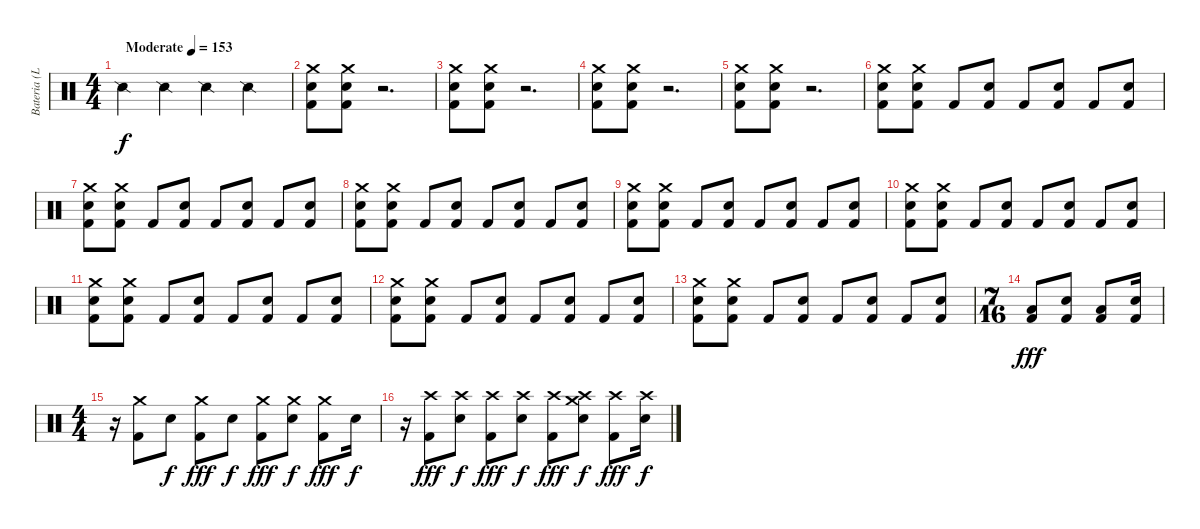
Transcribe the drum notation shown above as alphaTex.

\track ("Bateria (Lars)" "Bateria (L") {instrument percussion}
\staff {score}
\articulation defaults
\ts (4 4)
\tempo (153 "Moderate")
\clef neutral
\ks c "Snare (side stick) 2".4{dy f} "Snare (side stick) 2".4 "Snare (side stick) 2".4 "Snare (side stick) 2".4
|
("Crash medium (hit)" "Electric Snare (hit)" "Kick (hit) 2").8 ("Crash medium (hit)" "Electric Snare (hit)" "Kick (hit) 2").8 r.2{d} |
("Crash medium (hit)" "Electric Snare (hit)" "Kick (hit) 2").8 ("Crash medium (hit)" "Electric Snare (hit)" "Kick (hit) 2").8 r.2{d} |
("Crash medium (hit)" "Electric Snare (hit)" "Kick (hit) 2").8 ("Crash medium (hit)" "Electric Snare (hit)" "Kick (hit) 2").8 r.2{d} |
("Crash medium (hit)" "Electric Snare (hit)" "Kick (hit) 2").8 ("Crash medium (hit)" "Electric Snare (hit)" "Kick (hit) 2").8 r.2{d} |
("Crash medium (hit)" "Electric Snare (hit)" "Kick (hit) 2").8 ("Crash medium (hit)" "Electric Snare (hit)" "Kick (hit) 2").8 "Kick (hit) 2".8 ("Electric Snare (hit)" "Kick (hit) 2").8 "Kick (hit) 2".8 ("Electric Snare (hit)" "Kick (hit) 2").8 "Kick (hit) 2".8 ("Electric Snare (hit)" "Kick (hit) 2").8 |
("Crash medium (hit)" "Electric Snare (hit)" "Kick (hit) 2").8 ("Crash medium (hit)" "Electric Snare (hit)" "Kick (hit) 2").8 "Kick (hit) 2".8 ("Electric Snare (hit)" "Kick (hit) 2").8 "Kick (hit) 2".8 ("Electric Snare (hit)" "Kick (hit) 2").8 "Kick (hit) 2".8 ("Electric Snare (hit)" "Kick (hit) 2").8 |
("Crash medium (hit)" "Electric Snare (hit)" "Kick (hit) 2").8 ("Crash medium (hit)" "Electric Snare (hit)" "Kick (hit) 2").8 "Kick (hit) 2".8 ("Electric Snare (hit)" "Kick (hit) 2").8 "Kick (hit) 2".8 ("Electric Snare (hit)" "Kick (hit) 2").8 "Kick (hit) 2".8 ("Electric Snare (hit)" "Kick (hit) 2").8 |
("Crash medium (hit)" "Electric Snare (hit)" "Kick (hit) 2").8 ("Crash medium (hit)" "Electric Snare (hit)" "Kick (hit) 2").8 "Kick (hit) 2".8 ("Electric Snare (hit)" "Kick (hit) 2").8 "Kick (hit) 2".8 ("Electric Snare (hit)" "Kick (hit) 2").8 "Kick (hit) 2".8 ("Electric Snare (hit)" "Kick (hit) 2").8 |
("Crash medium (hit)" "Electric Snare (hit)" "Kick (hit) 2").8 ("Crash medium (hit)" "Electric Snare (hit)" "Kick (hit) 2").8 "Kick (hit) 2".8 ("Electric Snare (hit)" "Kick (hit) 2").8 "Kick (hit) 2".8 ("Electric Snare (hit)" "Kick (hit) 2").8 "Kick (hit) 2".8 ("Electric Snare (hit)" "Kick (hit) 2").8 |
("Crash medium (hit)" "Electric Snare (hit)" "Kick (hit) 2").8 ("Crash medium (hit)" "Electric Snare (hit)" "Kick (hit) 2").8 "Kick (hit) 2".8 ("Electric Snare (hit)" "Kick (hit) 2").8 "Kick (hit) 2".8 ("Electric Snare (hit)" "Kick (hit) 2").8 "Kick (hit) 2".8 ("Electric Snare (hit)" "Kick (hit) 2").8 |
("Crash medium (hit)" "Electric Snare (hit)" "Kick (hit) 2").8 ("Crash medium (hit)" "Electric Snare (hit)" "Kick (hit) 2").8 "Kick (hit) 2".8 ("Electric Snare (hit)" "Kick (hit) 2").8 "Kick (hit) 2".8 ("Electric Snare (hit)" "Kick (hit) 2").8 "Kick (hit) 2".8 ("Electric Snare (hit)" "Kick (hit) 2").8 |
("Crash medium (hit)" "Electric Snare (hit)" "Kick (hit) 2").8 ("Crash medium (hit)" "Electric Snare (hit)" "Kick (hit) 2").8 "Kick (hit) 2".8 ("Electric Snare (hit)" "Kick (hit) 2").8 "Kick (hit) 2".8 ("Electric Snare (hit)" "Kick (hit) 2").8 "Kick (hit) 2".8 ("Electric Snare (hit)" "Kick (hit) 2").8 |
\ts (7 16)
("Low Floor Tom (hit)" "Kick (hit) 2").8{dy fff} ("Electric Snare (hit)" "Kick (hit) 2").8 ("Low Floor Tom (hit)" "Kick (hit) 2").8 ("Electric Snare (hit)" "Kick (hit) 2").16 |
\ts (4 4)
r.16 ("Crash medium (hit)" "Kick (hit) 2").8 "Electric Snare (hit)".8{dy f} ("Crash medium (hit)" "Kick (hit) 2").8{dy fff} "Electric Snare (hit)".8{dy f} ("Crash medium (hit)" "Kick (hit) 2").8{dy fff} ("Crash medium (hit)" "Electric Snare (hit)").8{dy f} ("Crash medium (hit)" "Kick (hit) 2").8{dy fff} "Electric Snare (hit)".16{dy f} |
r.16 ("Crash high (hit)" "Kick (hit) 2").8{dy fff} ("Crash high (hit)" "Electric Snare (hit)").8{dy f} ("Crash high (hit)" "Kick (hit) 2").8{dy fff} ("Crash high (hit)" "Electric Snare (hit)").8{dy f} ("Crash high (hit)" "Kick (hit) 2").8{dy fff} ("Crash high (hit)" "Crash medium (hit)" "Electric Snare (hit)").8{dy f} ("Crash high (hit)" "Kick (hit) 2").8{dy fff} ("Crash high (hit)" "Electric Snare (hit)").16{dy f}
